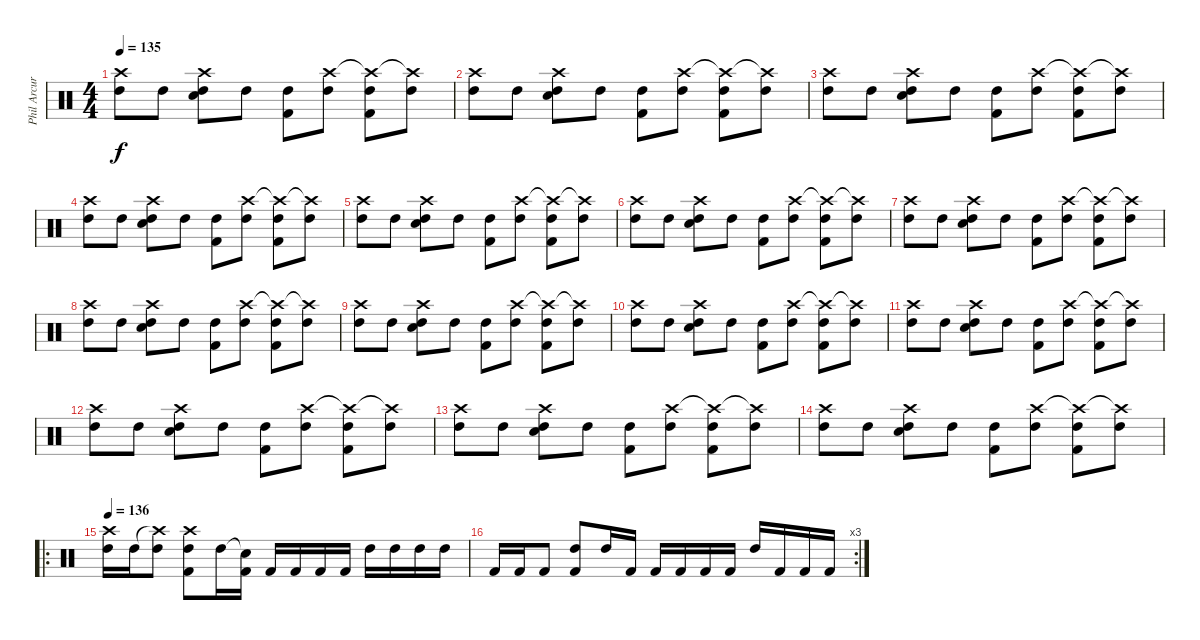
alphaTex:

\track ("Phil Arcuri drums" "Phil Arcur") {instrument percussion}
\staff {score}
\articulation defaults
\ts (4 4)
\tempo 135
\clef neutral
\ks c
("Crash high (hit)" "High Tom (hit)").8{dy f} "High Tom (hit)".8 ("Crash high (hit)" "Snare (hit) 2" "High Tom (hit)").8 "High Tom (hit)".8 ("Kick (hit) 2" "High Tom (hit)").8 ("Crash high (hit)" "High Tom (hit)").8 ("Crash high (hit)"{t} "Kick (hit) 2" "High Tom (hit)").8 ("Crash high (hit)"{t} "High Tom (hit)").8 |
("Crash high (hit)" "High Tom (hit)").8 "High Tom (hit)".8 ("Crash high (hit)" "Snare (hit) 2" "High Tom (hit)").8 "High Tom (hit)".8 ("Kick (hit) 2" "High Tom (hit)").8 ("Crash high (hit)" "High Tom (hit)").8 ("Crash high (hit)"{t} "Kick (hit) 2" "High Tom (hit)").8 ("Crash high (hit)"{t} "High Tom (hit)").8 |
("Crash high (hit)" "High Tom (hit)").8 "High Tom (hit)".8 ("Crash high (hit)" "Snare (hit) 2" "High Tom (hit)").8 "High Tom (hit)".8 ("Kick (hit) 2" "High Tom (hit)").8 ("Crash high (hit)" "High Tom (hit)").8 ("Crash high (hit)"{t} "Kick (hit) 2" "High Tom (hit)").8 ("Crash high (hit)"{t} "High Tom (hit)").8 |
("Crash high (hit)" "High Tom (hit)").8 "High Tom (hit)".8 ("Crash high (hit)" "Snare (hit) 2" "High Tom (hit)").8 "High Tom (hit)".8 ("Kick (hit) 2" "High Tom (hit)").8 ("Crash high (hit)" "High Tom (hit)").8 ("Crash high (hit)"{t} "Kick (hit) 2" "High Tom (hit)").8 ("Crash high (hit)"{t} "High Tom (hit)").8 |
("Crash high (hit)" "High Tom (hit)").8 "High Tom (hit)".8 ("Crash high (hit)" "Snare (hit) 2" "High Tom (hit)").8 "High Tom (hit)".8 ("Kick (hit) 2" "High Tom (hit)").8 ("Crash high (hit)" "High Tom (hit)").8 ("Crash high (hit)"{t} "Kick (hit) 2" "High Tom (hit)").8 ("Crash high (hit)"{t} "High Tom (hit)").8 |
("Crash high (hit)" "High Tom (hit)").8 "High Tom (hit)".8 ("Crash high (hit)" "Snare (hit) 2" "High Tom (hit)").8 "High Tom (hit)".8 ("Kick (hit) 2" "High Tom (hit)").8 ("Crash high (hit)" "High Tom (hit)").8 ("Crash high (hit)"{t} "Kick (hit) 2" "High Tom (hit)").8 ("Crash high (hit)"{t} "High Tom (hit)").8 |
("Crash high (hit)" "High Tom (hit)").8 "High Tom (hit)".8 ("Crash high (hit)" "Snare (hit) 2" "High Tom (hit)").8 "High Tom (hit)".8 ("Kick (hit) 2" "High Tom (hit)").8 ("Crash high (hit)" "High Tom (hit)").8 ("Crash high (hit)"{t} "Kick (hit) 2" "High Tom (hit)").8 ("Crash high (hit)"{t} "High Tom (hit)").8 |
("Crash high (hit)" "High Tom (hit)").8 "High Tom (hit)".8 ("Crash high (hit)" "Snare (hit) 2" "High Tom (hit)").8 "High Tom (hit)".8 ("Kick (hit) 2" "High Tom (hit)").8 ("Crash high (hit)" "High Tom (hit)").8 ("Crash high (hit)"{t} "Kick (hit) 2" "High Tom (hit)").8 ("Crash high (hit)"{t} "High Tom (hit)").8 |
("Crash high (hit)" "High Tom (hit)").8 "High Tom (hit)".8 ("Crash high (hit)" "Snare (hit) 2" "High Tom (hit)").8 "High Tom (hit)".8 ("Kick (hit) 2" "High Tom (hit)").8 ("Crash high (hit)" "High Tom (hit)").8 ("Crash high (hit)"{t} "Kick (hit) 2" "High Tom (hit)").8 ("Crash high (hit)"{t} "High Tom (hit)").8 |
("Crash high (hit)" "High Tom (hit)").8 "High Tom (hit)".8 ("Crash high (hit)" "Snare (hit) 2" "High Tom (hit)").8 "High Tom (hit)".8 ("Kick (hit) 2" "High Tom (hit)").8 ("Crash high (hit)" "High Tom (hit)").8 ("Crash high (hit)"{t} "Kick (hit) 2" "High Tom (hit)").8 ("Crash high (hit)"{t} "High Tom (hit)").8 |
("Crash high (hit)" "High Tom (hit)").8 "High Tom (hit)".8 ("Crash high (hit)" "Snare (hit) 2" "High Tom (hit)").8 "High Tom (hit)".8 ("Kick (hit) 2" "High Tom (hit)").8 ("Crash high (hit)" "High Tom (hit)").8 ("Crash high (hit)"{t} "Kick (hit) 2" "High Tom (hit)").8 ("Crash high (hit)"{t} "High Tom (hit)").8 |
("Crash high (hit)" "High Tom (hit)").8 "High Tom (hit)".8 ("Crash high (hit)" "Snare (hit) 2" "High Tom (hit)").8 "High Tom (hit)".8 ("Kick (hit) 2" "High Tom (hit)").8 ("Crash high (hit)" "High Tom (hit)").8 ("Crash high (hit)"{t} "Kick (hit) 2" "High Tom (hit)").8 ("Crash high (hit)"{t} "High Tom (hit)").8 |
("Crash high (hit)" "High Tom (hit)").8 "High Tom (hit)".8 ("Crash high (hit)" "Snare (hit) 2" "High Tom (hit)").8 "High Tom (hit)".8 ("Kick (hit) 2" "High Tom (hit)").8 ("Crash high (hit)" "High Tom (hit)").8 ("Crash high (hit)"{t} "Kick (hit) 2" "High Tom (hit)").8 ("Crash high (hit)"{t} "High Tom (hit)").8 |
("Crash high (hit)" "High Tom (hit)").8 "High Tom (hit)".8 ("Crash high (hit)" "Snare (hit) 2" "High Tom (hit)").8 "High Tom (hit)".8 ("Kick (hit) 2" "High Tom (hit)").8 ("Crash high (hit)" "High Tom (hit)").8 ("Crash high (hit)"{t} "Kick (hit) 2" "High Tom (hit)").8 ("Crash high (hit)"{t} "High Tom (hit)").8 |
\ro
\tempo 136
("Crash high (hit)" "High Tom (hit)").16 "High Tom (hit)".16 ("Crash high (hit)"{t} "High Tom (hit)").8 ("Crash high (hit)" "Kick (hit) 2" "High Tom (hit)").8 "High Tom (hit)".16 ("Snare (hit)"{t} "Kick (hit) 2").16 "Kick (hit) 2".16 "Kick (hit) 2".16 "Kick (hit) 2".16 "Kick (hit) 2".16 "High Tom (hit)".16 "High Tom (hit)".16 "High Tom (hit)".16 "High Tom (hit)".16 |
\rc 3 "Kick (hit) 2".16 "Kick (hit) 2".16 "Kick (hit) 2".8
("Kick (hit) 2" "High Tom (hit)").8 "High Tom (hit)".16 "Kick (hit) 2".16 "Kick (hit) 2".16 "Kick (hit) 2".16 "Kick (hit) 2".16 "Kick (hit) 2".16 "High Tom (hit)".16 "Kick (hit) 2".16 "Kick (hit) 2".16 "Kick (hit) 2".16
